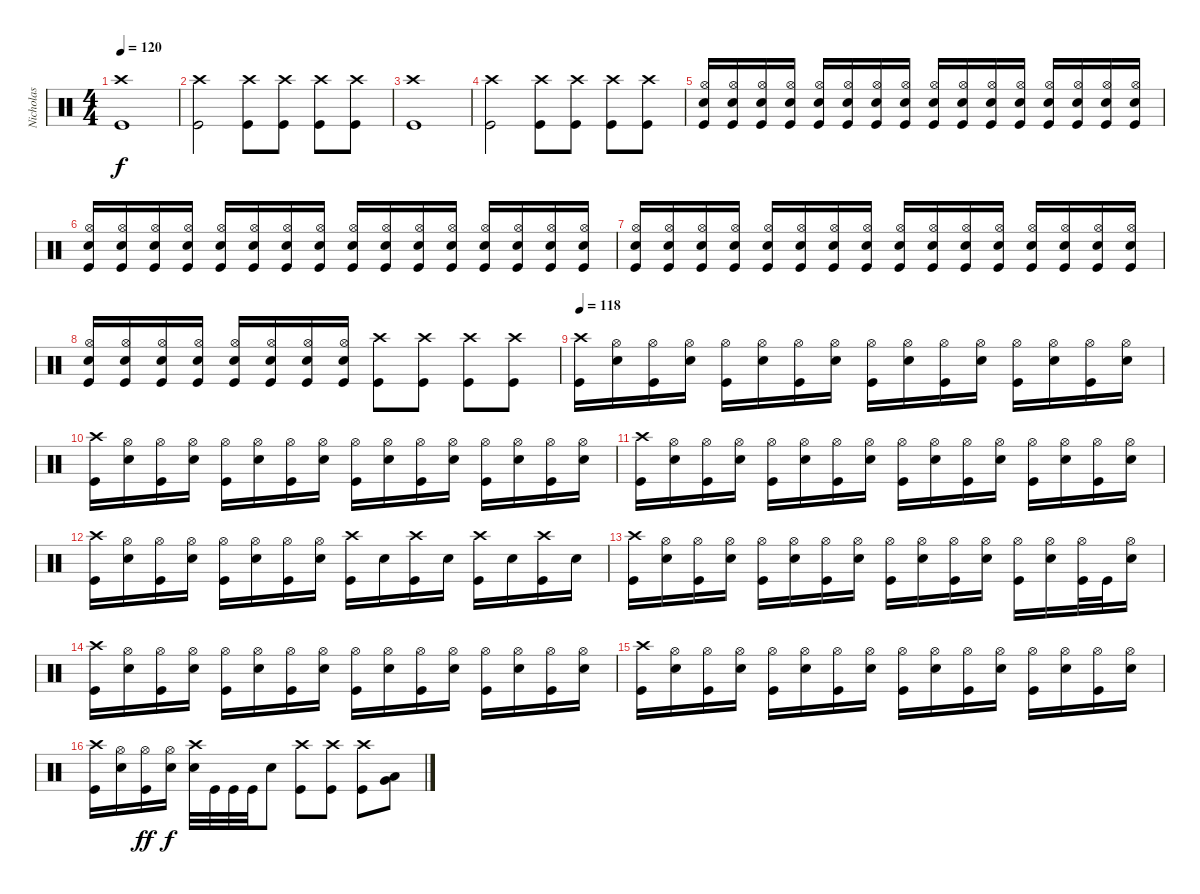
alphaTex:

\track ("Nicholas" "Nicholas") {instrument percussion}
\staff {score}
\articulation defaults
\ts (4 4)
\tempo 120
\clef neutral
\ks c
("Crash high (hit)" "Kick (hit)").1{dy f} |
("Crash high (hit)" "Kick (hit)").2 ("Crash high (hit)" "Kick (hit)").8 ("Crash high (hit)" "Kick (hit)").8 ("Crash high (hit)" "Kick (hit)").8 ("Crash high (hit)" "Kick (hit)").8 |
("Crash high (hit)" "Kick (hit)").1 |
("Crash high (hit)" "Kick (hit)").2 ("Crash high (hit)" "Kick (hit)").8 ("Crash high (hit)" "Kick (hit)").8 ("Crash high (hit)" "Kick (hit)").8 ("Crash high (hit)" "Kick (hit)").8 |
("Hi-Hat (open)" "Electric Snare (hit)" "Kick (hit)").16 ("Hi-Hat (open)" "Electric Snare (hit)" "Kick (hit)").16 ("Hi-Hat (open)" "Electric Snare (hit)" "Kick (hit)").16 ("Hi-Hat (open)" "Electric Snare (hit)" "Kick (hit)").16 ("Hi-Hat (open)" "Electric Snare (hit)" "Kick (hit)").16 ("Hi-Hat (open)" "Electric Snare (hit)" "Kick (hit)").16 ("Hi-Hat (open)" "Electric Snare (hit)" "Kick (hit)").16 ("Hi-Hat (open)" "Electric Snare (hit)" "Kick (hit)").16 ("Hi-Hat (open)" "Electric Snare (hit)" "Kick (hit)").16 ("Hi-Hat (open)" "Electric Snare (hit)" "Kick (hit)").16 ("Hi-Hat (open)" "Electric Snare (hit)" "Kick (hit)").16 ("Hi-Hat (open)" "Electric Snare (hit)" "Kick (hit)").16 ("Hi-Hat (open)" "Electric Snare (hit)" "Kick (hit)").16 ("Hi-Hat (open)" "Electric Snare (hit)" "Kick (hit)").16 ("Hi-Hat (open)" "Electric Snare (hit)" "Kick (hit)").16 ("Hi-Hat (open)" "Electric Snare (hit)" "Kick (hit)").16 |
("Hi-Hat (open)" "Electric Snare (hit)" "Kick (hit)").16 ("Hi-Hat (open)" "Electric Snare (hit)" "Kick (hit)").16 ("Hi-Hat (open)" "Electric Snare (hit)" "Kick (hit)").16 ("Hi-Hat (open)" "Electric Snare (hit)" "Kick (hit)").16 ("Hi-Hat (open)" "Electric Snare (hit)" "Kick (hit)").16 ("Hi-Hat (open)" "Electric Snare (hit)" "Kick (hit)").16 ("Hi-Hat (open)" "Electric Snare (hit)" "Kick (hit)").16 ("Hi-Hat (open)" "Electric Snare (hit)" "Kick (hit)").16 ("Hi-Hat (open)" "Electric Snare (hit)" "Kick (hit)").16 ("Hi-Hat (open)" "Electric Snare (hit)" "Kick (hit)").16 ("Hi-Hat (open)" "Electric Snare (hit)" "Kick (hit)").16 ("Hi-Hat (open)" "Electric Snare (hit)" "Kick (hit)").16 ("Hi-Hat (open)" "Electric Snare (hit)" "Kick (hit)").16 ("Hi-Hat (open)" "Electric Snare (hit)" "Kick (hit)").16 ("Hi-Hat (open)" "Electric Snare (hit)" "Kick (hit)").16 ("Hi-Hat (open)" "Electric Snare (hit)" "Kick (hit)").16 |
("Hi-Hat (open)" "Electric Snare (hit)" "Kick (hit)").16 ("Hi-Hat (open)" "Electric Snare (hit)" "Kick (hit)").16 ("Hi-Hat (open)" "Electric Snare (hit)" "Kick (hit)").16 ("Hi-Hat (open)" "Electric Snare (hit)" "Kick (hit)").16 ("Hi-Hat (open)" "Electric Snare (hit)" "Kick (hit)").16 ("Hi-Hat (open)" "Electric Snare (hit)" "Kick (hit)").16 ("Hi-Hat (open)" "Electric Snare (hit)" "Kick (hit)").16 ("Hi-Hat (open)" "Electric Snare (hit)" "Kick (hit)").16 ("Hi-Hat (open)" "Electric Snare (hit)" "Kick (hit)").16 ("Hi-Hat (open)" "Electric Snare (hit)" "Kick (hit)").16 ("Hi-Hat (open)" "Electric Snare (hit)" "Kick (hit)").16 ("Hi-Hat (open)" "Electric Snare (hit)" "Kick (hit)").16 ("Hi-Hat (open)" "Electric Snare (hit)" "Kick (hit)").16 ("Hi-Hat (open)" "Electric Snare (hit)" "Kick (hit)").16 ("Hi-Hat (open)" "Electric Snare (hit)" "Kick (hit)").16 ("Hi-Hat (open)" "Electric Snare (hit)" "Kick (hit)").16 |
("Hi-Hat (open)" "Electric Snare (hit)" "Kick (hit)").16 ("Hi-Hat (open)" "Electric Snare (hit)" "Kick (hit)").16 ("Hi-Hat (open)" "Electric Snare (hit)" "Kick (hit)").16 ("Hi-Hat (open)" "Electric Snare (hit)" "Kick (hit)").16 ("Hi-Hat (open)" "Electric Snare (hit)" "Kick (hit)").16 ("Hi-Hat (open)" "Electric Snare (hit)" "Kick (hit)").16 ("Hi-Hat (open)" "Electric Snare (hit)" "Kick (hit)").16 ("Hi-Hat (open)" "Electric Snare (hit)" "Kick (hit)").16 ("Crash high (hit)" "Kick (hit)").8 ("Crash high (hit)" "Kick (hit)").8 ("Crash high (hit)" "Kick (hit)").8 ("Crash high (hit)" "Kick (hit)").8 |
\tempo 118
("Crash high (hit)" "Kick (hit)").16 ("Hi-Hat (open)" "Electric Snare (hit)").16 ("Hi-Hat (open)" "Kick (hit)").16 ("Hi-Hat (open)" "Electric Snare (hit)").16 ("Hi-Hat (open)" "Kick (hit)").16 ("Hi-Hat (open)" "Electric Snare (hit)").16 ("Hi-Hat (open)" "Kick (hit)").16 ("Hi-Hat (open)" "Electric Snare (hit)").16 ("Hi-Hat (open)" "Kick (hit)").16 ("Hi-Hat (open)" "Electric Snare (hit)").16 ("Hi-Hat (open)" "Kick (hit)").16 ("Hi-Hat (open)" "Electric Snare (hit)").16 ("Hi-Hat (open)" "Kick (hit)").16 ("Hi-Hat (open)" "Electric Snare (hit)").16 ("Hi-Hat (open)" "Kick (hit)").16 ("Hi-Hat (open)" "Electric Snare (hit)").16 |
("Crash high (hit)" "Kick (hit)").16 ("Hi-Hat (open)" "Electric Snare (hit)").16 ("Hi-Hat (open)" "Kick (hit)").16 ("Hi-Hat (open)" "Electric Snare (hit)").16 ("Hi-Hat (open)" "Kick (hit)").16 ("Hi-Hat (open)" "Electric Snare (hit)").16 ("Hi-Hat (open)" "Kick (hit)").16 ("Hi-Hat (open)" "Electric Snare (hit)").16 ("Hi-Hat (open)" "Kick (hit)").16 ("Hi-Hat (open)" "Electric Snare (hit)").16 ("Hi-Hat (open)" "Kick (hit)").16 ("Hi-Hat (open)" "Electric Snare (hit)").16 ("Hi-Hat (open)" "Kick (hit)").16 ("Hi-Hat (open)" "Electric Snare (hit)").16 ("Hi-Hat (open)" "Kick (hit)").16 ("Hi-Hat (open)" "Electric Snare (hit)").16 |
("Crash high (hit)" "Kick (hit)").16 ("Hi-Hat (open)" "Electric Snare (hit)").16 ("Hi-Hat (open)" "Kick (hit)").16 ("Hi-Hat (open)" "Electric Snare (hit)").16 ("Hi-Hat (open)" "Kick (hit)").16 ("Hi-Hat (open)" "Electric Snare (hit)").16 ("Hi-Hat (open)" "Kick (hit)").16 ("Hi-Hat (open)" "Electric Snare (hit)").16 ("Hi-Hat (open)" "Kick (hit)").16 ("Hi-Hat (open)" "Electric Snare (hit)").16 ("Hi-Hat (open)" "Kick (hit)").16 ("Hi-Hat (open)" "Electric Snare (hit)").16 ("Hi-Hat (open)" "Kick (hit)").16 ("Hi-Hat (open)" "Electric Snare (hit)").16 ("Hi-Hat (open)" "Kick (hit)").16 ("Hi-Hat (open)" "Electric Snare (hit)").16 |
("Crash high (hit)" "Kick (hit)").16 ("Hi-Hat (open)" "Electric Snare (hit)").16 ("Hi-Hat (open)" "Kick (hit)").16 ("Hi-Hat (open)" "Electric Snare (hit)").16 ("Hi-Hat (open)" "Kick (hit)").16 ("Hi-Hat (open)" "Electric Snare (hit)").16 ("Hi-Hat (open)" "Kick (hit)").16 ("Hi-Hat (open)" "Electric Snare (hit)").16 ("Crash high (hit)" "Kick (hit)").16 "Electric Snare (hit)".16 ("Crash high (hit)" "Kick (hit)").16 "Electric Snare (hit)".16 ("Crash high (hit)" "Kick (hit)").16 "Electric Snare (hit)".16 ("Crash high (hit)" "Kick (hit)").16 "Electric Snare (hit)".16 |
("Crash high (hit)" "Kick (hit)").16 ("Hi-Hat (open)" "Electric Snare (hit)").16 ("Hi-Hat (open)" "Kick (hit)").16 ("Hi-Hat (open)" "Electric Snare (hit)").16 ("Hi-Hat (open)" "Kick (hit)").16 ("Hi-Hat (open)" "Electric Snare (hit)").16 ("Hi-Hat (open)" "Kick (hit)").16 ("Hi-Hat (open)" "Electric Snare (hit)").16 ("Hi-Hat (open)" "Kick (hit)").16 ("Hi-Hat (open)" "Electric Snare (hit)").16 ("Hi-Hat (open)" "Kick (hit)").16 ("Hi-Hat (open)" "Electric Snare (hit)").16 ("Hi-Hat (open)" "Kick (hit)").16 ("Hi-Hat (open)" "Electric Snare (hit)").16 ("Hi-Hat (open)" "Kick (hit)").32 "Kick (hit)".32 ("Hi-Hat (open)" "Electric Snare (hit)").16 |
("Crash high (hit)" "Kick (hit)").16 ("Hi-Hat (open)" "Electric Snare (hit)").16 ("Hi-Hat (open)" "Kick (hit)").16 ("Hi-Hat (open)" "Electric Snare (hit)").16 ("Hi-Hat (open)" "Kick (hit)").16 ("Hi-Hat (open)" "Electric Snare (hit)").16 ("Hi-Hat (open)" "Kick (hit)").16 ("Hi-Hat (open)" "Electric Snare (hit)").16 ("Hi-Hat (open)" "Kick (hit)").16 ("Hi-Hat (open)" "Electric Snare (hit)").16 ("Hi-Hat (open)" "Kick (hit)").16 ("Hi-Hat (open)" "Electric Snare (hit)").16 ("Hi-Hat (open)" "Kick (hit)").16 ("Hi-Hat (open)" "Electric Snare (hit)").16 ("Hi-Hat (open)" "Kick (hit)").16 ("Hi-Hat (open)" "Electric Snare (hit)").16 |
("Crash high (hit)" "Kick (hit)").16 ("Hi-Hat (open)" "Electric Snare (hit)").16 ("Hi-Hat (open)" "Kick (hit)").16 ("Hi-Hat (open)" "Electric Snare (hit)").16 ("Hi-Hat (open)" "Kick (hit)").16 ("Hi-Hat (open)" "Electric Snare (hit)").16 ("Hi-Hat (open)" "Kick (hit)").16 ("Hi-Hat (open)" "Electric Snare (hit)").16 ("Hi-Hat (open)" "Kick (hit)").16 ("Hi-Hat (open)" "Electric Snare (hit)").16 ("Hi-Hat (open)" "Kick (hit)").16 ("Hi-Hat (open)" "Electric Snare (hit)").16 ("Hi-Hat (open)" "Kick (hit)").16 ("Hi-Hat (open)" "Electric Snare (hit)").16 ("Hi-Hat (open)" "Kick (hit)").16 ("Hi-Hat (open)" "Electric Snare (hit)").16 |
("Crash high (hit)" "Kick (hit)").16 ("Hi-Hat (open)" "Electric Snare (hit)").16 ("Hi-Hat (open)" "Kick (hit)").16{dy ff} ("Hi-Hat (open)" "Electric Snare (hit)").16{dy f} ("Crash high (hit)" "Electric Snare (hit)").32 "Kick (hit)".32 "Kick (hit)".32 "Kick (hit)".32 "Electric Snare (hit)".8 ("Crash high (hit)" "Kick (hit)").8 ("Crash high (hit)" "Kick (hit)").8 ("Crash high (hit)" "Kick (hit)").8 ("Low Tom (hit)" "Very Low Tom (hit)").8{bu 60}
